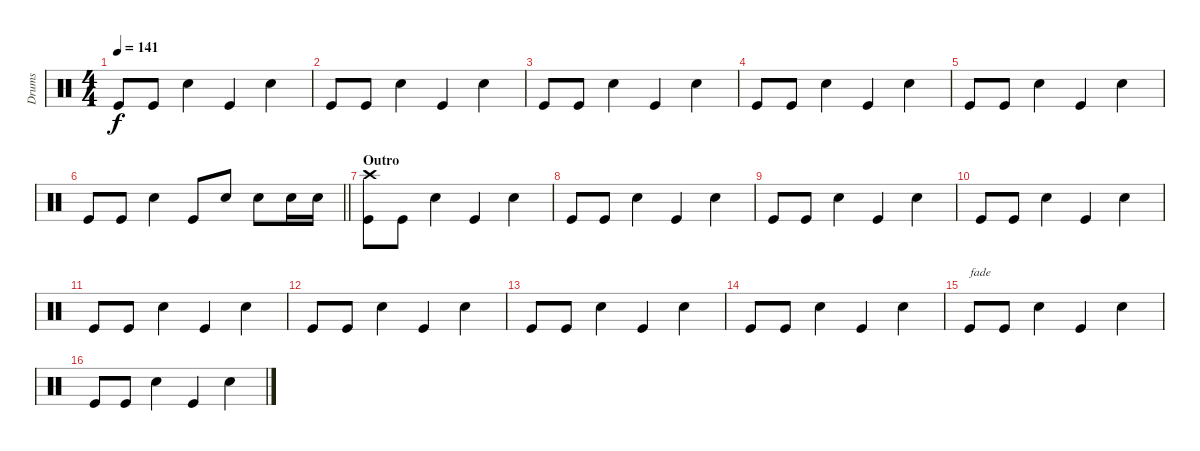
\track ("Drums" "Drums") {instrument percussion}
\staff {score}
\articulation defaults
\ts (4 4)
\tempo 141
\clef neutral
\ks c "Kick (hit)".8{dy f} "Kick (hit)".8 "Snare (hit) 2".4 "Kick (hit)".4 "Snare (hit) 2".4
|
"Kick (hit)".8 "Kick (hit)".8 "Snare (hit) 2".4 "Kick (hit)".4 "Snare (hit) 2".4 |
"Kick (hit)".8 "Kick (hit)".8 "Snare (hit) 2".4 "Kick (hit)".4 "Snare (hit) 2".4 |
"Kick (hit)".8 "Kick (hit)".8 "Snare (hit) 2".4 "Kick (hit)".4 "Snare (hit) 2".4 |
"Kick (hit)".8 "Kick (hit)".8 "Snare (hit) 2".4 "Kick (hit)".4 "Snare (hit) 2".4 |
\barLineRight lightlight "Kick (hit)".8 "Kick (hit)".8 "Snare (hit) 2".4 "Kick (hit)".8 "Snare (hit) 2".8 "Snare (hit) 2".8 "Snare (hit) 2".16 "Snare (hit) 2".16
|
\section ("" "Outro")
("Crash high (hit)" "Kick (hit)").8 "Kick (hit)".8 "Snare (hit) 2".4 "Kick (hit)".4 "Snare (hit) 2".4 |
"Kick (hit)".8 "Kick (hit)".8 "Snare (hit) 2".4 "Kick (hit)".4 "Snare (hit) 2".4 |
"Kick (hit)".8 "Kick (hit)".8 "Snare (hit) 2".4 "Kick (hit)".4 "Snare (hit) 2".4 |
"Kick (hit)".8 "Kick (hit)".8 "Snare (hit) 2".4 "Kick (hit)".4 "Snare (hit) 2".4 |
"Kick (hit)".8 "Kick (hit)".8 "Snare (hit) 2".4 "Kick (hit)".4 "Snare (hit) 2".4 |
"Kick (hit)".8 "Kick (hit)".8 "Snare (hit) 2".4 "Kick (hit)".4 "Snare (hit) 2".4 |
"Kick (hit)".8 "Kick (hit)".8 "Snare (hit) 2".4 "Kick (hit)".4 "Snare (hit) 2".4 |
"Kick (hit)".8 "Kick (hit)".8 "Snare (hit) 2".4 "Kick (hit)".4 "Snare (hit) 2".4 |
"Kick (hit)".8{txt "fade " volume 10} "Kick (hit)".8 "Snare (hit) 2".4 "Kick (hit)".4 "Snare (hit) 2".4 |
"Kick (hit)".8{volume 8} "Kick (hit)".8 "Snare (hit) 2".4 "Kick (hit)".4 "Snare (hit) 2".4
